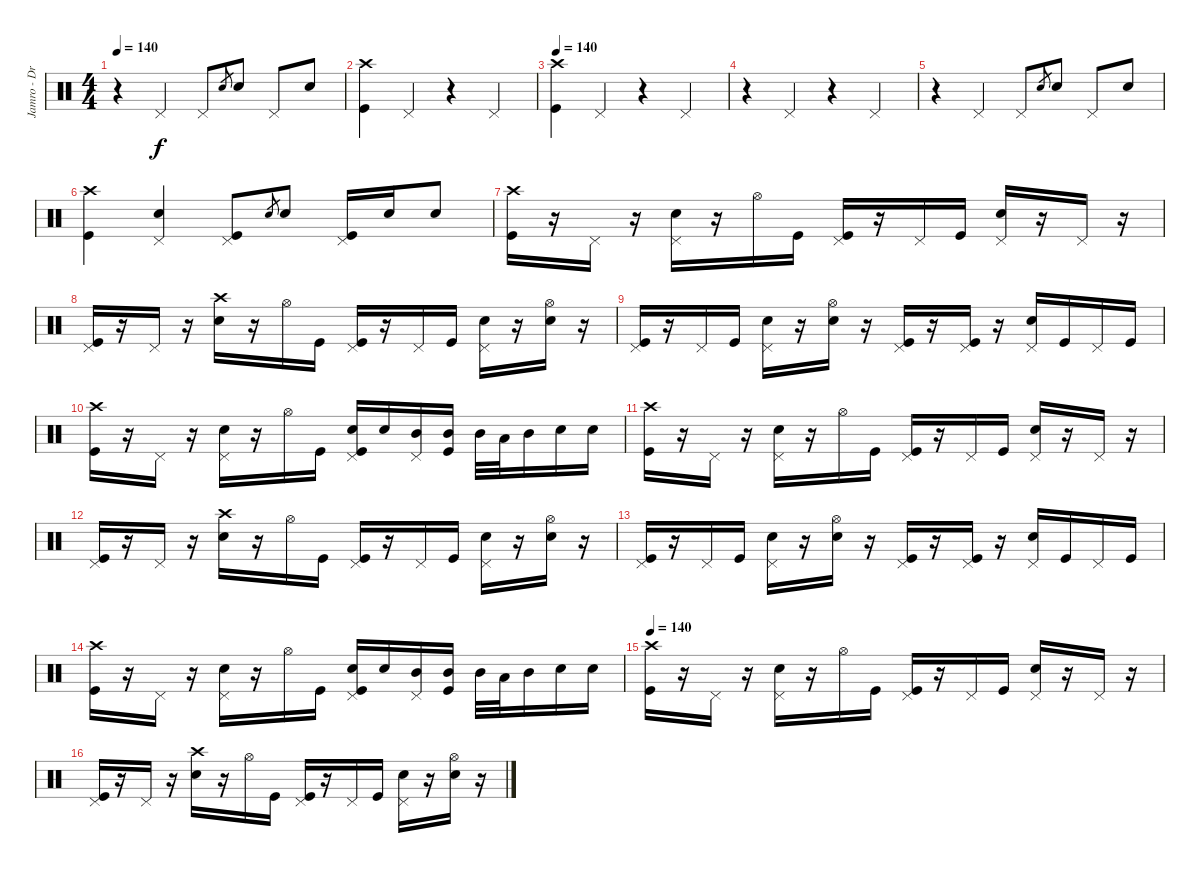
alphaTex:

\track ("Jamro - Drums" "Jamro - Dr") {instrument percussion}
\staff {score}
\articulation defaults
\ts (4 4)
\tempo 140
\clef neutral
\ks c
r.4{dy f} "Pedal Hi-Hat (hit)".4 "Pedal Hi-Hat (hit)".8 "Snare (hit) 2".8{gr} "Electric Snare (hit)".8 "Pedal Hi-Hat (hit)".8 "Electric Snare (hit)".8 |
("Crash high (hit)" "Kick (hit)").4 "Pedal Hi-Hat (hit)".4 r.4 "Pedal Hi-Hat (hit)".4 |
\tempo 140
("Crash high (hit)" "Kick (hit)").4 "Pedal Hi-Hat (hit)".4 r.4 "Pedal Hi-Hat (hit)".4 |
r.4 "Pedal Hi-Hat (hit)".4 r.4 "Pedal Hi-Hat (hit)".4 |
r.4 "Pedal Hi-Hat (hit)".4 "Pedal Hi-Hat (hit)".8 "Snare (hit) 2".8{gr} "Electric Snare (hit)".8 "Pedal Hi-Hat (hit)".8 "Electric Snare (hit)".8 |
("Crash high (hit)" "Kick (hit)").4 ("Pedal Hi-Hat (hit)" "Electric Snare (hit)").4 ("Pedal Hi-Hat (hit)" "Kick (hit)").8 "Snare (hit) 2".8{gr} "Electric Snare (hit)".8 ("Pedal Hi-Hat (hit)" "Kick (hit)").16 "Electric Snare (hit)".16 "Electric Snare (hit)".8 |
("Kick (hit)" "Crash high (hit)").16 r.16 "Pedal Hi-Hat (hit)".16 r.16 ("Electric Snare (hit)" "Pedal Hi-Hat (hit)").16 r.16 "Hi-Hat (open)".16 "Kick (hit)".16 ("Kick (hit)" "Pedal Hi-Hat (hit)").16 r.16 "Pedal Hi-Hat (hit)".16 "Kick (hit)".16 ("Electric Snare (hit)" "Pedal Hi-Hat (hit)").16 r.16 "Pedal Hi-Hat (hit)".16 r.16 |
("Kick (hit)" "Pedal Hi-Hat (hit)").16 r.16 "Pedal Hi-Hat (hit)".16 r.16 ("Electric Snare (hit)" "Crash high (hit)").16 r.16 "Hi-Hat (open)".16 "Kick (hit)".16 ("Kick (hit)" "Pedal Hi-Hat (hit)").16 r.16 "Pedal Hi-Hat (hit)".16 "Kick (hit)".16 ("Electric Snare (hit)" "Pedal Hi-Hat (hit)").16 r.16 ("Electric Snare (hit)" "Hi-Hat (open)").16 r.16 |
("Kick (hit)" "Pedal Hi-Hat (hit)").16 r.16 "Pedal Hi-Hat (hit)".16 "Kick (hit)".16 ("Electric Snare (hit)" "Pedal Hi-Hat (hit)").16 r.16 ("Electric Snare (hit)" "Hi-Hat (open)").16 r.16 ("Kick (hit)" "Pedal Hi-Hat (hit)").16 r.16 ("Kick (hit)" "Pedal Hi-Hat (hit)").16 r.16 ("Electric Snare (hit)" "Pedal Hi-Hat (hit)").16 "Kick (hit)".16 "Pedal Hi-Hat (hit)".16 "Kick (hit)".16 |
("Kick (hit)" "Crash high (hit)").16 r.16 "Pedal Hi-Hat (hit)".16 r.16 ("Electric Snare (hit)" "Pedal Hi-Hat (hit)").16 r.16 "Hi-Hat (open)".16 "Kick (hit)".16 ("Kick (hit)" "Pedal Hi-Hat (hit)" "Electric Snare (hit)").16 "Electric Snare (hit)".16 ("Pedal Hi-Hat (hit)" "Mid Tom (hit)").16 ("Kick (hit)" "Mid Tom (hit)").16 "Mid Tom (hit)".32 "Low Tom (hit)".32 "Mid Tom (hit)".16 "Electric Snare (hit)".16 "Electric Snare (hit)".16 |
("Kick (hit)" "Crash high (hit)").16 r.16 "Pedal Hi-Hat (hit)".16 r.16 ("Electric Snare (hit)" "Pedal Hi-Hat (hit)").16 r.16 "Hi-Hat (open)".16 "Kick (hit)".16 ("Kick (hit)" "Pedal Hi-Hat (hit)").16 r.16 "Pedal Hi-Hat (hit)".16 "Kick (hit)".16 ("Electric Snare (hit)" "Pedal Hi-Hat (hit)").16 r.16 "Pedal Hi-Hat (hit)".16 r.16 |
("Kick (hit)" "Pedal Hi-Hat (hit)").16 r.16 "Pedal Hi-Hat (hit)".16 r.16 ("Electric Snare (hit)" "Crash high (hit)").16 r.16 "Hi-Hat (open)".16 "Kick (hit)".16 ("Kick (hit)" "Pedal Hi-Hat (hit)").16 r.16 "Pedal Hi-Hat (hit)".16 "Kick (hit)".16 ("Electric Snare (hit)" "Pedal Hi-Hat (hit)").16 r.16 ("Electric Snare (hit)" "Hi-Hat (open)").16 r.16 |
("Kick (hit)" "Pedal Hi-Hat (hit)").16 r.16 "Pedal Hi-Hat (hit)".16 "Kick (hit)".16 ("Electric Snare (hit)" "Pedal Hi-Hat (hit)").16 r.16 ("Electric Snare (hit)" "Hi-Hat (open)").16 r.16 ("Kick (hit)" "Pedal Hi-Hat (hit)").16 r.16 ("Kick (hit)" "Pedal Hi-Hat (hit)").16 r.16 ("Electric Snare (hit)" "Pedal Hi-Hat (hit)").16 "Kick (hit)".16 "Pedal Hi-Hat (hit)".16 "Kick (hit)".16 |
("Kick (hit)" "Crash high (hit)").16 r.16 "Pedal Hi-Hat (hit)".16 r.16 ("Electric Snare (hit)" "Pedal Hi-Hat (hit)").16 r.16 "Hi-Hat (open)".16 "Kick (hit)".16 ("Kick (hit)" "Pedal Hi-Hat (hit)" "Electric Snare (hit)").16 "Electric Snare (hit)".16 ("Pedal Hi-Hat (hit)" "Mid Tom (hit)").16 ("Kick (hit)" "Mid Tom (hit)").16 "Mid Tom (hit)".32 "Low Tom (hit)".32 "Mid Tom (hit)".16 "Electric Snare (hit)".16 "Electric Snare (hit)".16 |
\tempo 140
("Kick (hit)" "Crash high (hit)").16 r.16 "Pedal Hi-Hat (hit)".16 r.16 ("Electric Snare (hit)" "Pedal Hi-Hat (hit)").16 r.16 "Hi-Hat (open)".16 "Kick (hit)".16 ("Kick (hit)" "Pedal Hi-Hat (hit)").16 r.16 "Pedal Hi-Hat (hit)".16 "Kick (hit)".16 ("Electric Snare (hit)" "Pedal Hi-Hat (hit)").16 r.16 "Pedal Hi-Hat (hit)".16 r.16 |
("Kick (hit)" "Pedal Hi-Hat (hit)").16 r.16 "Pedal Hi-Hat (hit)".16 r.16 ("Electric Snare (hit)" "Crash high (hit)").16 r.16 "Hi-Hat (open)".16 "Kick (hit)".16 ("Kick (hit)" "Pedal Hi-Hat (hit)").16 r.16 "Pedal Hi-Hat (hit)".16 "Kick (hit)".16 ("Electric Snare (hit)" "Pedal Hi-Hat (hit)").16 r.16 ("Electric Snare (hit)" "Hi-Hat (open)").16 r.16
